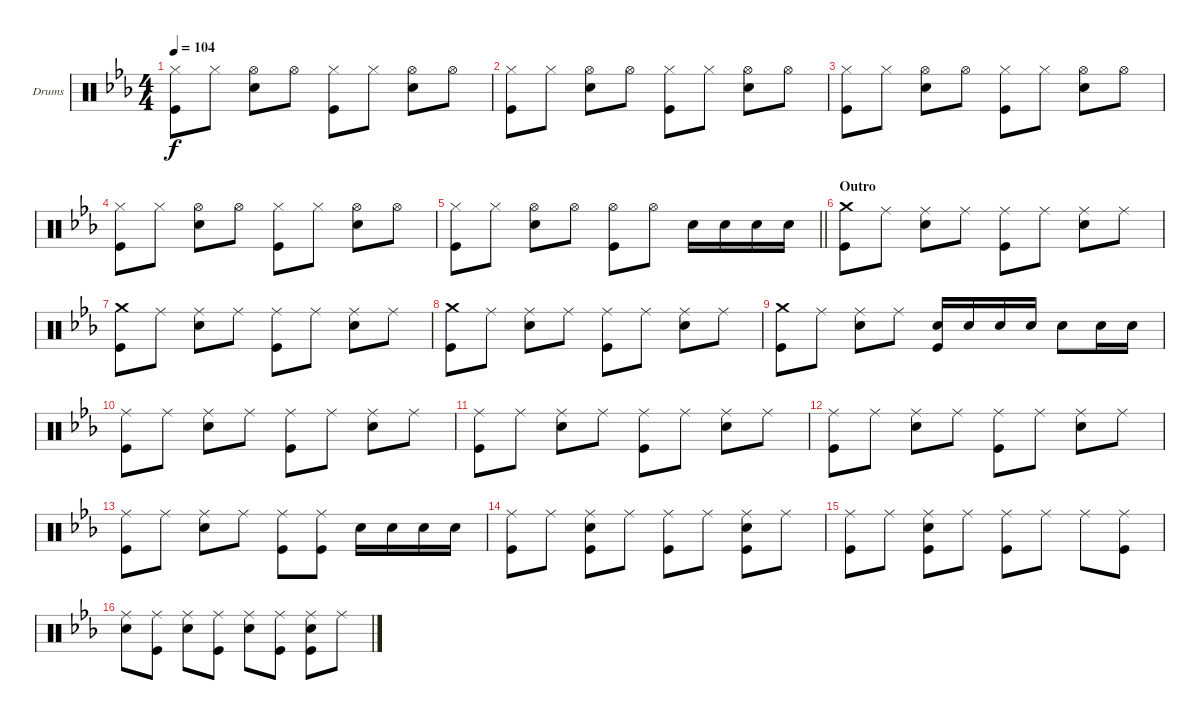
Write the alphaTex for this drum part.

\bracketExtendMode groupsimilarinstruments
\firstSystemTrackNameOrientation horizontal
\otherSystemsTrackNameOrientation horizontal
\track ("Drumkit" "Drums") {instrument percussion}
\staff {score}
\articulation defaults
\ts (4 4)
\tempo 104
\clef neutral
\ks eb
("Hi-Hat (closed)" "Kick (hit)").8{dy f} "Hi-Hat (closed)".8 ("Hi-Hat (open)" "Snare (hit) 2").8 "Hi-Hat (open)".8 ("Hi-Hat (closed)" "Kick (hit)").8 "Hi-Hat (closed)".8 ("Hi-Hat (open)" "Snare (hit) 2").8 "Hi-Hat (open)".8 |
("Hi-Hat (closed)" "Kick (hit)").8 "Hi-Hat (closed)".8 ("Hi-Hat (open)" "Snare (hit) 2").8 "Hi-Hat (open)".8 ("Hi-Hat (closed)" "Kick (hit)").8 "Hi-Hat (closed)".8 ("Hi-Hat (open)" "Snare (hit) 2").8 "Hi-Hat (open)".8 |
("Hi-Hat (closed)" "Kick (hit)").8 "Hi-Hat (closed)".8 ("Hi-Hat (open)" "Snare (hit) 2").8 "Hi-Hat (open)".8 ("Hi-Hat (closed)" "Kick (hit)").8 "Hi-Hat (closed)".8 ("Hi-Hat (open)" "Snare (hit) 2").8 "Hi-Hat (open)".8 |
("Hi-Hat (closed)" "Kick (hit)").8 "Hi-Hat (closed)".8 ("Hi-Hat (open)" "Snare (hit) 2").8 "Hi-Hat (open)".8 ("Hi-Hat (closed)" "Kick (hit)").8 "Hi-Hat (closed)".8 ("Hi-Hat (open)" "Snare (hit) 2").8 "Hi-Hat (open)".8 |
\barLineRight lightlight
("Hi-Hat (closed)" "Kick (hit)").8 "Hi-Hat (closed)".8 ("Hi-Hat (open)" "Snare (hit) 2").8 "Hi-Hat (open)".8 ("Hi-Hat (open)" "Kick (hit)").8 "Hi-Hat (open)".8 "Snare (hit) 2".16 "Snare (hit) 2".16 "Snare (hit) 2".16 "Snare (hit) 2".16 |
\section ("" "Outro")
("Crash medium (hit)" "Kick (hit)").8 "Ride (middle)".8 ("Ride (middle)" "Snare (hit) 2").8 "Ride (middle)".8 ("Ride (middle)" "Kick (hit)").8 "Ride (middle)".8 ("Ride (middle)" "Snare (hit) 2").8 "Ride (middle)".8 |
("Crash medium (hit)" "Kick (hit)").8 "Ride (middle)".8 ("Ride (middle)" "Snare (hit) 2").8 "Ride (middle)".8 ("Ride (middle)" "Kick (hit)").8 "Ride (middle)".8 ("Ride (middle)" "Snare (hit) 2").8 "Ride (middle)".8 |
("Crash medium (hit)" "Kick (hit)").8 "Ride (middle)".8 ("Ride (middle)" "Snare (hit) 2").8 "Ride (middle)".8 ("Ride (middle)" "Kick (hit)").8 "Ride (middle)".8 ("Ride (middle)" "Snare (hit) 2").8 "Ride (middle)".8 |
("Crash medium (hit)" "Kick (hit)").8 "Ride (middle)".8 ("Ride (middle)" "Snare (hit) 2").8 "Ride (middle)".8 ("Snare (hit) 2" "Kick (hit)").16 "Snare (hit) 2".16 "Snare (hit) 2".16 "Snare (hit) 2".16 "Snare (hit) 2".8 "Snare (hit) 2".16 "Snare (hit) 2".16 |
("Ride (middle)" "Kick (hit)").8 "Ride (middle)".8 ("Ride (middle)" "Snare (hit) 2").8 "Ride (middle)".8 ("Ride (middle)" "Kick (hit)").8 "Ride (middle)".8 ("Ride (middle)" "Snare (hit) 2").8 "Ride (middle)".8 |
("Ride (middle)" "Kick (hit)").8 "Ride (middle)".8 ("Ride (middle)" "Snare (hit) 2").8 "Ride (middle)".8 ("Ride (middle)" "Kick (hit)").8 "Ride (middle)".8 ("Ride (middle)" "Snare (hit) 2").8 "Ride (middle)".8 |
("Ride (middle)" "Kick (hit)").8 "Ride (middle)".8 ("Ride (middle)" "Snare (hit) 2").8 "Ride (middle)".8 ("Ride (middle)" "Kick (hit)").8 "Ride (middle)".8 ("Ride (middle)" "Snare (hit) 2").8 "Ride (middle)".8 |
("Ride (middle)" "Kick (hit)").8 "Ride (middle)".8 ("Ride (middle)" "Snare (hit) 2").8 "Ride (middle)".8 ("Ride (middle)" "Kick (hit)").8 ("Ride (middle)" "Kick (hit)").8 "Snare (hit) 2".16 "Snare (hit) 2".16 "Snare (hit) 2".16 "Snare (hit) 2".16 |
("Ride (middle)" "Kick (hit)").8 "Ride (middle)".8 ("Ride (middle)" "Snare (hit) 2" "Kick (hit)").8 "Ride (middle)".8 ("Ride (middle)" "Kick (hit)").8 "Ride (middle)".8 ("Ride (middle)" "Snare (hit) 2" "Kick (hit)").8 "Ride (middle)".8 |
("Ride (middle)" "Kick (hit)").8 "Ride (middle)".8 ("Ride (middle)" "Snare (hit) 2" "Kick (hit)").8 "Ride (middle)".8 ("Ride (middle)" "Kick (hit)").8 "Ride (middle)".8 "Ride (middle)".8 ("Ride (middle)" "Kick (hit)").8 |
("Ride (middle)" "Snare (hit) 2").8 ("Ride (middle)" "Kick (hit)").8 ("Ride (middle)" "Snare (hit) 2").8 ("Ride (middle)" "Kick (hit)").8 ("Ride (middle)" "Snare (hit) 2").8 ("Ride (middle)" "Kick (hit)").8 ("Ride (middle)" "Snare (hit) 2" "Kick (hit)").8 "Ride (middle)".8
